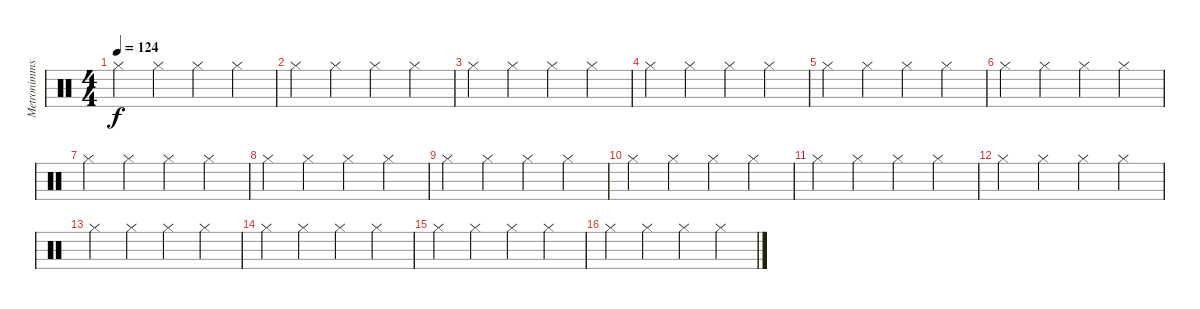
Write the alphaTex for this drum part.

\track ("Metronimms" "Metronimms") {instrument percussion}
\staff {score}
\articulation defaults
\ts (4 4)
\tempo 124
\clef neutral
\ks c "Hi-Hat (closed)".4{dy f} "Hi-Hat (closed)".4 "Hi-Hat (closed)".4 "Hi-Hat (closed)".4
|
"Hi-Hat (closed)".4 "Hi-Hat (closed)".4 "Hi-Hat (closed)".4 "Hi-Hat (closed)".4 |
"Hi-Hat (closed)".4 "Hi-Hat (closed)".4 "Hi-Hat (closed)".4 "Hi-Hat (closed)".4 |
"Hi-Hat (closed)".4 "Hi-Hat (closed)".4 "Hi-Hat (closed)".4 "Hi-Hat (closed)".4 |
"Hi-Hat (closed)".4 "Hi-Hat (closed)".4 "Hi-Hat (closed)".4 "Hi-Hat (closed)".4 |
"Hi-Hat (closed)".4 "Hi-Hat (closed)".4 "Hi-Hat (closed)".4 "Hi-Hat (closed)".4 |
"Hi-Hat (closed)".4 "Hi-Hat (closed)".4 "Hi-Hat (closed)".4 "Hi-Hat (closed)".4 |
"Hi-Hat (closed)".4 "Hi-Hat (closed)".4 "Hi-Hat (closed)".4 "Hi-Hat (closed)".4 |
"Hi-Hat (closed)".4 "Hi-Hat (closed)".4 "Hi-Hat (closed)".4 "Hi-Hat (closed)".4 |
"Hi-Hat (closed)".4 "Hi-Hat (closed)".4 "Hi-Hat (closed)".4 "Hi-Hat (closed)".4 |
"Hi-Hat (closed)".4 "Hi-Hat (closed)".4 "Hi-Hat (closed)".4 "Hi-Hat (closed)".4 |
"Hi-Hat (closed)".4 "Hi-Hat (closed)".4 "Hi-Hat (closed)".4 "Hi-Hat (closed)".4 |
"Hi-Hat (closed)".4 "Hi-Hat (closed)".4 "Hi-Hat (closed)".4 "Hi-Hat (closed)".4 |
"Hi-Hat (closed)".4 "Hi-Hat (closed)".4 "Hi-Hat (closed)".4 "Hi-Hat (closed)".4 |
"Hi-Hat (closed)".4 "Hi-Hat (closed)".4 "Hi-Hat (closed)".4 "Hi-Hat (closed)".4 |
"Hi-Hat (closed)".4 "Hi-Hat (closed)".4 "Hi-Hat (closed)".4 "Hi-Hat (closed)".4
